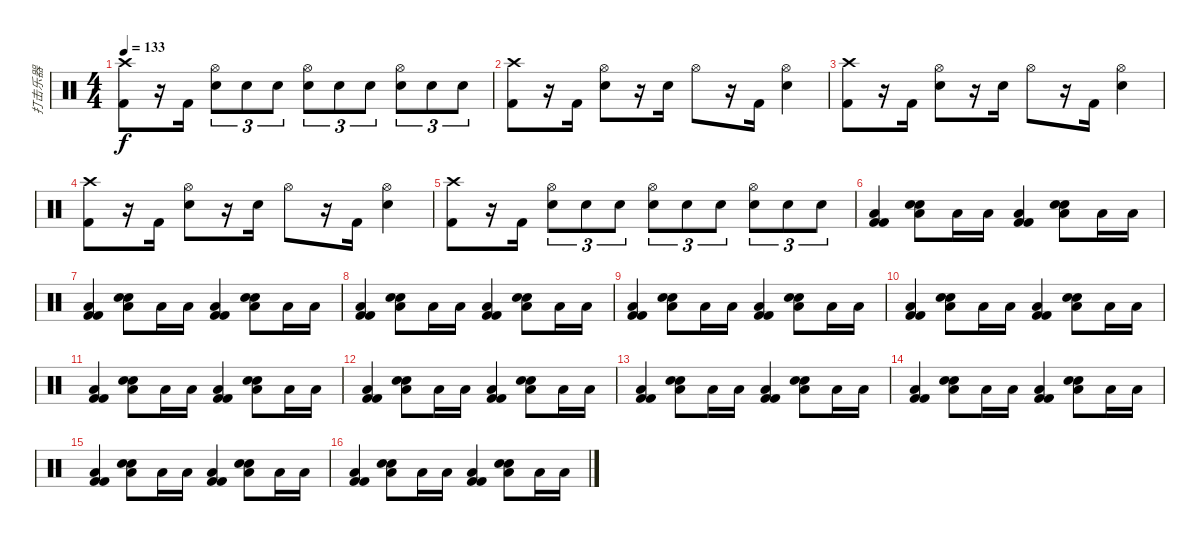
\track ("打击乐器" "打击乐器") {instrument percussion}
\staff {score}
\articulation defaults
\ts (4 4)
\tempo 133
\clef neutral
\ks c
("Crash high (hit)" "Kick (hit) 2").8{dy f} r.16 "Kick (hit) 2".16 ("Hi-Hat (open)" "Electric Snare (hit)").8{tu (3 2)} "Electric Snare (hit)".8{tu (3 2)} "Electric Snare (hit)".8{tu (3 2)} ("Hi-Hat (open)" "Electric Snare (hit)").8{tu (3 2)} "Electric Snare (hit)".8{tu (3 2)} "Electric Snare (hit)".8{tu (3 2)} ("Hi-Hat (open)" "Electric Snare (hit)").8{tu (3 2)} "Electric Snare (hit)".8{tu (3 2)} "Electric Snare (hit)".8{tu (3 2)} |
("Crash high (hit)" "Kick (hit) 2").8 r.16 "Kick (hit) 2".16 ("Hi-Hat (open)" "Electric Snare (hit)").8 r.16 "Electric Snare (hit)".16 "Hi-Hat (open)".8 r.16 "Kick (hit) 2".16 ("Hi-Hat (open)" "Electric Snare (hit)").4 |
("Crash high (hit)" "Kick (hit) 2").8 r.16 "Kick (hit) 2".16 ("Hi-Hat (open)" "Electric Snare (hit)").8 r.16 "Electric Snare (hit)".16 "Hi-Hat (open)".8 r.16 "Kick (hit) 2".16 ("Hi-Hat (open)" "Electric Snare (hit)").4 |
("Crash high (hit)" "Kick (hit) 2").8 r.16 "Kick (hit) 2".16 ("Hi-Hat (open)" "Electric Snare (hit)").8 r.16 "Electric Snare (hit)".16 "Hi-Hat (open)".8 r.16 "Kick (hit) 2".16 ("Hi-Hat (open)" "Electric Snare (hit)").4 |
("Crash high (hit)" "Kick (hit) 2").8 r.16 "Kick (hit) 2".16 ("Hi-Hat (open)" "Electric Snare (hit)").8{tu (3 2)} "Electric Snare (hit)".8{tu (3 2)} "Electric Snare (hit)".8{tu (3 2)} ("Hi-Hat (open)" "Electric Snare (hit)").8{tu (3 2)} "Electric Snare (hit)".8{tu (3 2)} "Electric Snare (hit)".8{tu (3 2)} ("Hi-Hat (open)" "Electric Snare (hit)").8{tu (3 2)} "Electric Snare (hit)".8{tu (3 2)} "Electric Snare (hit)".8{tu (3 2)} |
("Low Tom (hit)" "Kick (hit) 2" "Kick (hit) 2").4 ("Low Tom (hit)" "Electric Snare (hit)" "Electric Snare (hit)").8 "Low Tom (hit)".16 "Low Tom (hit)".16 ("Low Tom (hit)" "Kick (hit) 2" "Kick (hit) 2").4 ("Low Tom (hit)" "Electric Snare (hit)" "Electric Snare (hit)").8 "Low Tom (hit)".16 "Low Tom (hit)".16 |
("Low Tom (hit)" "Kick (hit) 2" "Kick (hit) 2").4 ("Low Tom (hit)" "Electric Snare (hit)" "Electric Snare (hit)").8 "Low Tom (hit)".16 "Low Tom (hit)".16 ("Low Tom (hit)" "Kick (hit) 2" "Kick (hit) 2").4 ("Low Tom (hit)" "Electric Snare (hit)" "Electric Snare (hit)").8 "Low Tom (hit)".16 "Low Tom (hit)".16 |
("Low Tom (hit)" "Kick (hit) 2" "Kick (hit) 2").4 ("Low Tom (hit)" "Electric Snare (hit)" "Electric Snare (hit)").8 "Low Tom (hit)".16 "Low Tom (hit)".16 ("Low Tom (hit)" "Kick (hit) 2" "Kick (hit) 2").4 ("Low Tom (hit)" "Electric Snare (hit)" "Electric Snare (hit)").8 "Low Tom (hit)".16 "Low Tom (hit)".16 |
("Low Tom (hit)" "Kick (hit) 2" "Kick (hit) 2").4 ("Low Tom (hit)" "Electric Snare (hit)" "Electric Snare (hit)").8 "Low Tom (hit)".16 "Low Tom (hit)".16 ("Low Tom (hit)" "Kick (hit) 2" "Kick (hit) 2").4 ("Low Tom (hit)" "Electric Snare (hit)" "Electric Snare (hit)").8 "Low Tom (hit)".16 "Low Tom (hit)".16 |
("Low Tom (hit)" "Kick (hit) 2" "Kick (hit) 2").4 ("Low Tom (hit)" "Electric Snare (hit)" "Electric Snare (hit)").8 "Low Tom (hit)".16 "Low Tom (hit)".16 ("Low Tom (hit)" "Kick (hit) 2" "Kick (hit) 2").4 ("Low Tom (hit)" "Electric Snare (hit)" "Electric Snare (hit)").8 "Low Tom (hit)".16 "Low Tom (hit)".16 |
("Low Tom (hit)" "Kick (hit) 2" "Kick (hit) 2").4 ("Low Tom (hit)" "Electric Snare (hit)" "Electric Snare (hit)").8 "Low Tom (hit)".16 "Low Tom (hit)".16 ("Low Tom (hit)" "Kick (hit) 2" "Kick (hit) 2").4 ("Low Tom (hit)" "Electric Snare (hit)" "Electric Snare (hit)").8 "Low Tom (hit)".16 "Low Tom (hit)".16 |
("Low Tom (hit)" "Kick (hit) 2" "Kick (hit) 2").4 ("Low Tom (hit)" "Electric Snare (hit)" "Electric Snare (hit)").8 "Low Tom (hit)".16 "Low Tom (hit)".16 ("Low Tom (hit)" "Kick (hit) 2" "Kick (hit) 2").4 ("Low Tom (hit)" "Electric Snare (hit)" "Electric Snare (hit)").8 "Low Tom (hit)".16 "Low Tom (hit)".16 |
("Low Tom (hit)" "Kick (hit) 2" "Kick (hit) 2").4 ("Low Tom (hit)" "Electric Snare (hit)" "Electric Snare (hit)").8 "Low Tom (hit)".16 "Low Tom (hit)".16 ("Low Tom (hit)" "Kick (hit) 2" "Kick (hit) 2").4 ("Low Tom (hit)" "Electric Snare (hit)" "Electric Snare (hit)").8 "Low Tom (hit)".16 "Low Tom (hit)".16 |
("Low Tom (hit)" "Kick (hit) 2" "Kick (hit) 2").4 ("Low Tom (hit)" "Electric Snare (hit)" "Electric Snare (hit)").8 "Low Tom (hit)".16 "Low Tom (hit)".16 ("Low Tom (hit)" "Kick (hit) 2" "Kick (hit) 2").4 ("Low Tom (hit)" "Electric Snare (hit)" "Electric Snare (hit)").8 "Low Tom (hit)".16 "Low Tom (hit)".16 |
("Low Tom (hit)" "Kick (hit) 2" "Kick (hit) 2").4 ("Low Tom (hit)" "Electric Snare (hit)" "Electric Snare (hit)").8 "Low Tom (hit)".16 "Low Tom (hit)".16 ("Low Tom (hit)" "Kick (hit) 2" "Kick (hit) 2").4 ("Low Tom (hit)" "Electric Snare (hit)" "Electric Snare (hit)").8 "Low Tom (hit)".16 "Low Tom (hit)".16 |
("Low Tom (hit)" "Kick (hit) 2" "Kick (hit) 2").4 ("Low Tom (hit)" "Electric Snare (hit)" "Electric Snare (hit)").8 "Low Tom (hit)".16 "Low Tom (hit)".16 ("Low Tom (hit)" "Kick (hit) 2" "Kick (hit) 2").4 ("Low Tom (hit)" "Electric Snare (hit)" "Electric Snare (hit)").8 "Low Tom (hit)".16 "Low Tom (hit)".16
